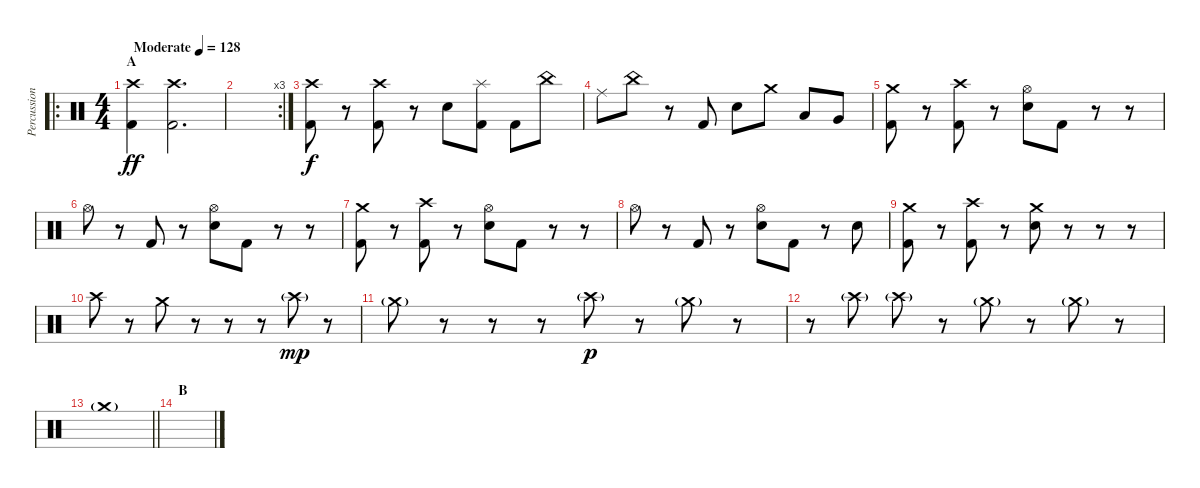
\track ("Percussion" "Percussion") {instrument percussion}
\staff {score}
\articulation defaults
\ro
\ts (4 4)
\section ("" "A")
\tempo (128 "Moderate")
\clef neutral
\ks c
("Crash high (hit)" "Kick (hit) 2").4{dy ff} ("Crash high (hit)" "Kick (hit) 2").2{d} |
\rc 3
|
("Crash high (hit)" "Kick (hit) 2").8{dy f} r.8 ("Crash high (hit)" "Kick (hit) 2").8 r.8 "Snare (hit) 2".8 ("Splash (hit)" "Kick (hit) 2").8 "Kick (hit) 2".8 "China (hit)".8 |
"Ride (middle)".8 "China (hit)".8 r.8 "Kick (hit) 2".8 "Snare (hit) 2".8 "Crash medium (hit)".8 "Low Tom (hit)".8 "Very Low Tom (hit)".8 |
("Crash medium (hit)" "Kick (hit) 2").8 r.8 ("Crash high (hit)" "Kick (hit) 2").8 r.8 ("Hi-Hat (open)" "Snare (hit) 2").8 "Kick (hit) 2".8 r.8 r.8 |
"Hi-Hat (open)".8 r.8 "Kick (hit) 2".8 r.8 ("Hi-Hat (open)" "Snare (hit) 2").8 "Kick (hit) 2".8 r.8 r.8 |
("Crash medium (hit)" "Kick (hit) 2").8 r.8 ("Crash high (hit)" "Kick (hit) 2").8 r.8 ("Hi-Hat (open)" "Snare (hit) 2").8 "Kick (hit) 2".8 r.8 r.8 |
"Hi-Hat (open)".8 r.8 "Kick (hit) 2".8 r.8 ("Hi-Hat (open)" "Snare (hit) 2").8 "Kick (hit) 2".8 r.8 "Snare (hit) 2".8 |
("Crash medium (hit)" "Kick (hit) 2").8 r.8 ("Crash high (hit)" "Kick (hit) 2").8 r.8 ("Crash medium (hit)" "Snare (hit) 2").8 r.8 r.8 r.8 |
"Crash high (hit)".8 r.8 "Crash medium (hit)".8 r.8 r.8 r.8 "Crash high (hit)"{g}.8{dy mp} r.8 |
"Crash medium (hit)"{g}.8 r.8 r.8 r.8 "Crash high (hit)"{g}.8{dy p} r.8 "Crash medium (hit)"{g}.8 r.8 |
r.8 "Crash high (hit)"{g}.8 "Crash high (hit)"{g}.8 r.8 "Crash medium (hit)"{g}.8 r.8 "Crash medium (hit)"{g}.8 r.8 |
\barLineRight lightlight "Crash medium (hit)"{g}.1
|
\section ("" "B")
